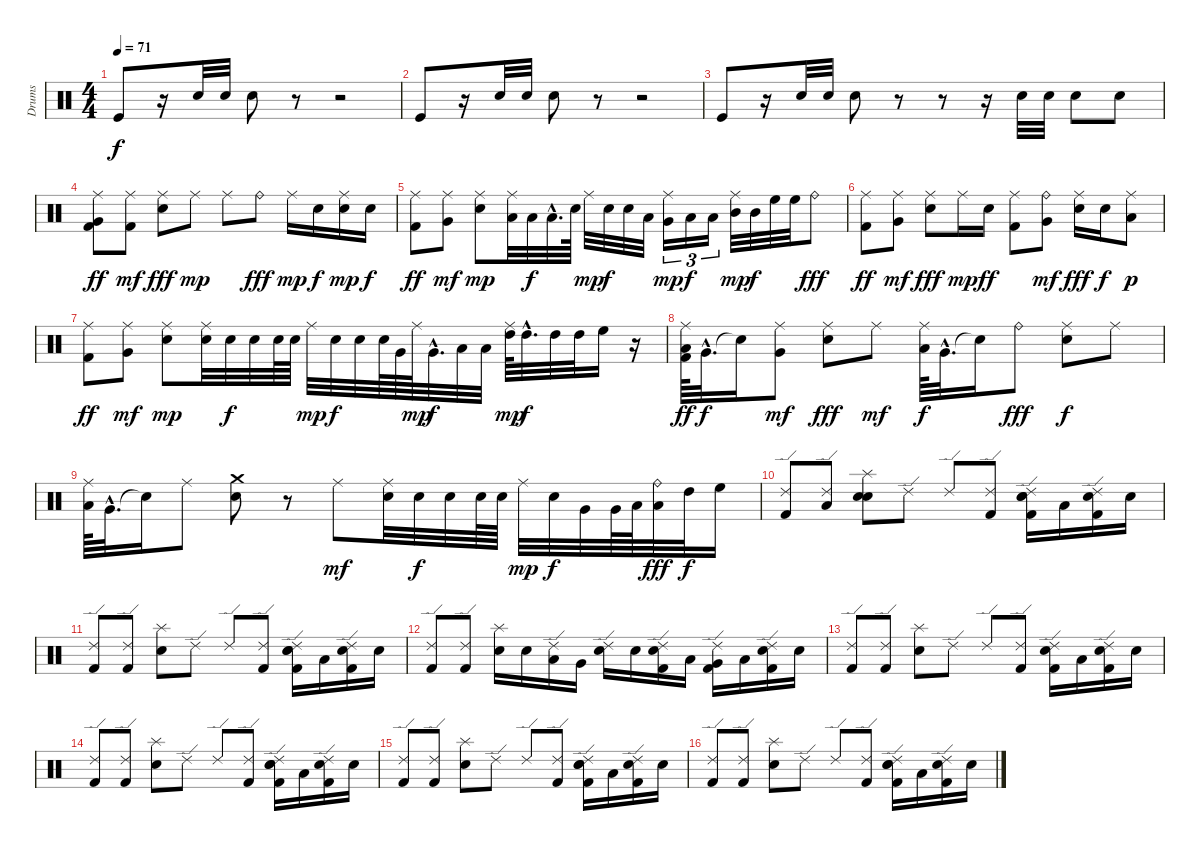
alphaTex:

\track ("Drums" "Drums") {instrument percussion}
\staff {score}
\articulation defaults
\ts (4 4)
\tempo 71
\clef neutral
\ks c "Kick (hit)".8{dy f}
r.16 "Electric Snare (hit)".32 "Snare (hit) 2".32 "Snare (hit) 2".8 r.8 r.2 |
"Kick (hit)".8 r.16 "Electric Snare (hit)".32 "Snare (hit) 2".32 "Snare (hit) 2".8 r.8 r.2 |
"Kick (hit)".8 r.16 "Electric Snare (hit)".32 "Snare (hit) 2".32 "Snare (hit) 2".8 r.8 r.8 r.16 "Snare (hit) 2".32 "Snare (hit) 2".32 "Snare (hit) 2".8 "Snare (hit) 2".8 |
("Ride (middle)" "Very Low Tom (hit)" "Kick (hit) 2").8{dy ff} ("Ride (middle)" "Kick (hit) 2").8{dy mf} ("Ride (middle)" "Electric Snare (hit)").8{dy fff} "Ride (middle)".8{dy mp} "Ride (middle)".8 "Ride (bell)".8{dy fff} "Ride (middle)".16{dy mp} "Snare (hit) 2".16{dy f} ("Ride (middle)" "Snare (hit) 2").16{dy mp} "Snare (hit) 2".16{dy f} |
("Ride (middle)" "Kick (hit) 2").8{dy ff} ("Ride (middle)" "Very Low Tom (hit)").8{dy mf} ("Ride (middle)" "Electric Snare (hit)").8{dy mp} ("Ride (middle)" "Low Floor Tom (hit)").32{volume 10} "Low Floor Tom (hit)".32{dy f} "Low Floor Tom (hit)"{hac}.32{d volume 14} "Electric Snare (hit)".64 "Ride (middle)".32{dy mp} "Electric Snare (hit)".32{dy f} "Electric Snare (hit)".32 "Low Floor Tom (hit)".32{volume 10} ("Ride (middle)" "Very Low Tom (hit)").16{tu (3 2) dy mp volume 12} "Low Tom (hit)".16{tu (3 2) dy f volume 14} "Low Tom (hit)".16{tu (3 2) volume 15} ("Ride (middle)" "Mid Tom (hit)").32{dy mp volume 16} "Mid Tom (hit)".32{dy f} "High Floor Tom (hit)".32 "High Floor Tom (hit)".32 "Ride (bell)".8{dy fff} |
("Ride (middle)" "Kick (hit) 2").8{dy ff} ("Ride (middle)" "Very Low Tom (hit)").8{dy mf} ("Ride (middle)" "Electric Snare (hit)").8{dy fff} "Ride (middle)".16{dy mp} "Snare (hit) 2".16{dy ff} ("Ride (middle)" "Kick (hit) 2").8 ("Ride (bell)" "Very Low Tom (hit)").8{dy mf} ("Ride (middle)" "Electric Snare (hit)").16{dy fff} "Electric Snare (hit)".16{dy f} ("Ride (middle)" "Low Floor Tom (hit)").8{dy p} |
("Ride (middle)" "Kick (hit) 2").8{dy ff} ("Ride (middle)" "Very Low Tom (hit)").8{dy mf} ("Ride (middle)" "Electric Snare (hit)").8{dy mp} ("Ride (middle)" "Snare (hit) 2").32 "Snare (hit) 2".32{dy f} "Snare (hit) 2".32 "Snare (hit) 2".64 "Electric Snare (hit)".64 "Ride (middle)".32{dy mp} "Electric Snare (hit)".32{dy f} "Electric Snare (hit)".32 "Electric Snare (hit)".64 "Very Low Tom (hit)".64 "Ride (middle)".64{dy mp} "Very Low Tom (hit)"{hac}.32{d dy f} "Low Tom (hit)".32 "Low Tom (hit)".32 ("Ride (middle)" "High Tom (hit)").64{dy mp} "High Tom (hit)"{hac}.32{d dy f} "High Tom (hit)".32 "High Tom (hit)".32 "High Floor Tom (hit)".16 r.16 |
("Ride (middle)" "Low Floor Tom (hit)" "Kick (hit) 2").64{dy ff} "Very Low Tom (hit)"{hac}.32{d dy f} "Snare (hit)"{t}.16 ("Ride (middle)" "Very Low Tom (hit)").8{dy mf} ("Ride (middle)" "Electric Snare (hit)").8{dy fff} "Ride (middle)".8{dy mf} ("Ride (middle)" "Low Floor Tom (hit)").64{dy f} "Very Low Tom (hit)"{hac}.32{d} "Snare (hit)"{t}.16 "Ride (bell)".8{dy fff} ("Ride (middle)" "Electric Snare (hit)").8{dy f} "Ride (middle)".8 |
("Ride (middle)" "Low Floor Tom (hit)").64 "Very Low Tom (hit)"{hac}.32{d} "Snare (hit)"{t}.16 "Ride (middle)".8 ("Crash medium (hit)" "Electric Snare (hit)").8 r.8 "Ride (middle)".8{dy mf} ("Ride (middle)" "Snare (hit) 2").32 "Snare (hit) 2".32{dy f} "Snare (hit) 2".32 "Snare (hit) 2".64 "Electric Snare (hit)".64 "Ride (middle)".32{dy mp} "Electric Snare (hit)".32{dy f} "Very Low Tom (hit)".32 "Very Low Tom (hit)".64 "Low Tom (hit)".64 ("Ride (bell)" "Low Tom (hit)").32{dy fff} "High Tom (hit)".32{dy f} "High Floor Tom (hit)".16 |
("Ride (edge) 2" "Kick (hit) 2").8 ("Ride (edge) 2" "Low Floor Tom (hit)").8 ("Splash (hit)" "Snare (hit) 2" "Electric Snare (hit)").8 "Ride (edge) 2".8 "Ride (edge) 2".8 ("Ride (edge) 2" "Kick (hit) 2").8 ("Ride (edge) 2" "Snare (hit) 2" "Electric Snare (hit)" "Kick (hit) 2").16 "Low Floor Tom (hit)".16 ("Ride (edge) 2" "Snare (hit) 2" "Kick (hit) 2").16 "Snare (hit) 2".16 |
("Ride (edge) 2" "Kick (hit) 2").8 ("Ride (edge) 2" "Kick (hit) 2").8 ("Splash (hit)" "Snare (hit) 2").8 "Ride (edge) 2".8 "Ride (edge) 2".8 ("Ride (edge) 2" "Kick (hit) 2").8 ("Ride (edge) 2" "Snare (hit) 2" "Electric Snare (hit)" "Kick (hit) 2").16 "Low Floor Tom (hit)".16 ("Ride (edge) 2" "Snare (hit) 2" "Kick (hit) 2").16 "Snare (hit) 2".16 |
("Ride (edge) 2" "Kick (hit) 2").8 ("Ride (edge) 2" "Kick (hit) 2").8 ("Splash (hit)" "Snare (hit) 2").16 "Electric Snare (hit)".16 ("Ride (edge) 2" "Low Floor Tom (hit)").16 "Very Low Tom (hit)".16 ("Ride (edge) 2" "Snare (hit) 2").16 "Electric Snare (hit)".16 ("Ride (edge) 2" "Snare (hit) 2" "Kick (hit) 2").16 "Low Floor Tom (hit)".16 ("Ride (edge) 2" "Very Low Tom (hit)" "Kick (hit) 2").16 "Low Floor Tom (hit)".16 ("Ride (edge) 2" "Snare (hit) 2" "Kick (hit) 2").16 "Snare (hit) 2".16 |
("Ride (edge) 2" "Kick (hit) 2").8 ("Ride (edge) 2" "Kick (hit) 2").8 ("Splash (hit)" "Snare (hit) 2").8 "Ride (edge) 2".8 "Ride (edge) 2".8 ("Ride (edge) 2" "Kick (hit) 2").8 ("Ride (edge) 2" "Snare (hit) 2" "Kick (hit) 2").16 "Low Floor Tom (hit)".16 ("Ride (edge) 2" "Snare (hit) 2" "Kick (hit) 2").16 "Snare (hit) 2".16 |
("Ride (edge) 2" "Kick (hit) 2").8 ("Ride (edge) 2" "Kick (hit) 2").8 ("Splash (hit)" "Snare (hit) 2").8 "Ride (edge) 2".8 "Ride (edge) 2".8 ("Ride (edge) 2" "Kick (hit) 2").8 ("Ride (edge) 2" "Snare (hit) 2" "Electric Snare (hit)" "Kick (hit) 2").16 "Low Floor Tom (hit)".16 ("Ride (edge) 2" "Snare (hit) 2" "Kick (hit) 2").16 "Snare (hit) 2".16 |
("Ride (edge) 2" "Kick (hit) 2").8 ("Ride (edge) 2" "Kick (hit) 2").8 ("Splash (hit)" "Snare (hit) 2").8 "Ride (edge) 2".8 "Ride (edge) 2".8 ("Ride (edge) 2" "Kick (hit) 2").8 ("Ride (edge) 2" "Snare (hit) 2" "Electric Snare (hit)" "Kick (hit) 2").16 "Low Floor Tom (hit)".16 ("Ride (edge) 2" "Snare (hit) 2" "Kick (hit) 2").16 "Snare (hit) 2".16 |
("Ride (edge) 2" "Kick (hit) 2").8 ("Ride (edge) 2" "Kick (hit) 2").8 ("Splash (hit)" "Snare (hit) 2").8 "Ride (edge) 2".8 "Ride (edge) 2".8 ("Ride (edge) 2" "Kick (hit) 2").8 ("Ride (edge) 2" "Snare (hit) 2" "Electric Snare (hit)" "Kick (hit) 2").16 "Low Floor Tom (hit)".16 ("Ride (edge) 2" "Snare (hit) 2" "Kick (hit) 2").16 "Snare (hit) 2".16
